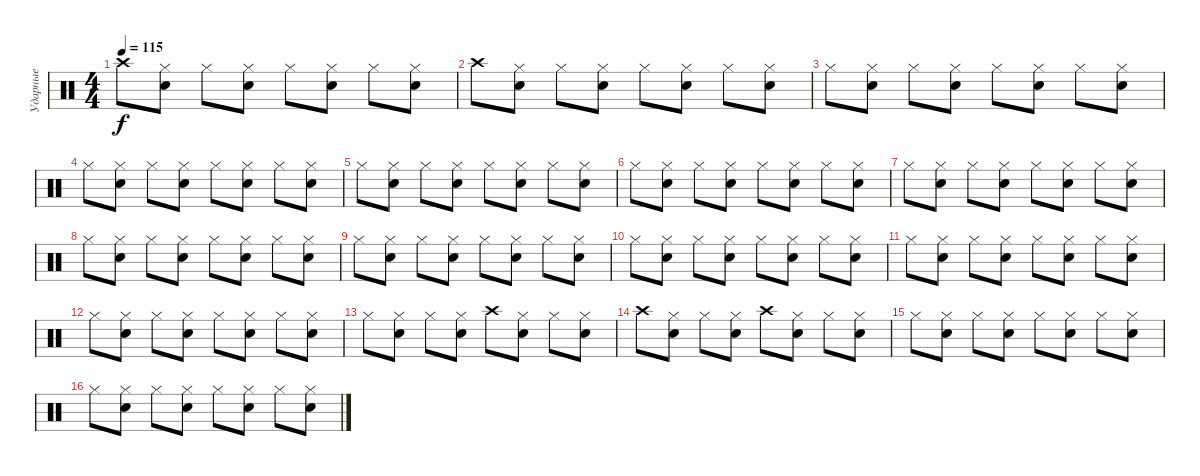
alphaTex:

\track ("Ударные" "Ударные") {instrument percussion}
\staff {score}
\articulation defaults
\ts (4 4)
\tempo 115
\clef neutral
\ks c "Crash high (hit)".8{dy f}
("Hi-Hat (closed)" "Snare (hit) 2").8 "Hi-Hat (closed)".8 ("Hi-Hat (closed)" "Snare (hit) 2").8 "Hi-Hat (closed)".8 ("Hi-Hat (closed)" "Snare (hit) 2").8 "Hi-Hat (closed)".8 ("Hi-Hat (closed)" "Snare (hit) 2").8 |
"Crash high (hit)".8 ("Hi-Hat (closed)" "Snare (hit) 2").8 "Hi-Hat (closed)".8 ("Hi-Hat (closed)" "Snare (hit) 2").8 "Hi-Hat (closed)".8 ("Hi-Hat (closed)" "Snare (hit) 2").8 "Hi-Hat (closed)".8 ("Hi-Hat (closed)" "Snare (hit) 2").8 |
"Hi-Hat (closed)".8 ("Hi-Hat (closed)" "Snare (hit) 2").8 "Hi-Hat (closed)".8 ("Hi-Hat (closed)" "Snare (hit) 2").8 "Hi-Hat (closed)".8 ("Hi-Hat (closed)" "Snare (hit) 2").8 "Hi-Hat (closed)".8 ("Hi-Hat (closed)" "Snare (hit) 2").8 |
"Hi-Hat (closed)".8 ("Hi-Hat (closed)" "Snare (hit) 2").8 "Hi-Hat (closed)".8 ("Hi-Hat (closed)" "Snare (hit) 2").8 "Hi-Hat (closed)".8 ("Hi-Hat (closed)" "Snare (hit) 2").8 "Hi-Hat (closed)".8 ("Hi-Hat (closed)" "Snare (hit) 2").8 |
"Hi-Hat (closed)".8 ("Hi-Hat (closed)" "Snare (hit) 2").8 "Hi-Hat (closed)".8 ("Hi-Hat (closed)" "Snare (hit) 2").8 "Hi-Hat (closed)".8 ("Hi-Hat (closed)" "Snare (hit) 2").8 "Hi-Hat (closed)".8 ("Hi-Hat (closed)" "Snare (hit) 2").8 |
"Hi-Hat (closed)".8 ("Hi-Hat (closed)" "Snare (hit) 2").8 "Hi-Hat (closed)".8 ("Hi-Hat (closed)" "Snare (hit) 2").8 "Hi-Hat (closed)".8 ("Hi-Hat (closed)" "Snare (hit) 2").8 "Hi-Hat (closed)".8 ("Hi-Hat (closed)" "Snare (hit) 2").8 |
"Hi-Hat (closed)".8 ("Hi-Hat (closed)" "Snare (hit) 2").8 "Hi-Hat (closed)".8 ("Hi-Hat (closed)" "Snare (hit) 2").8 "Hi-Hat (closed)".8 ("Hi-Hat (closed)" "Snare (hit) 2").8 "Hi-Hat (closed)".8 ("Hi-Hat (closed)" "Snare (hit) 2").8 |
"Hi-Hat (closed)".8 ("Hi-Hat (closed)" "Snare (hit) 2").8 "Hi-Hat (closed)".8 ("Hi-Hat (closed)" "Snare (hit) 2").8 "Hi-Hat (closed)".8 ("Hi-Hat (closed)" "Snare (hit) 2").8 "Hi-Hat (closed)".8 ("Hi-Hat (closed)" "Snare (hit) 2").8 |
"Hi-Hat (closed)".8 ("Hi-Hat (closed)" "Snare (hit) 2").8 "Hi-Hat (closed)".8 ("Hi-Hat (closed)" "Snare (hit) 2").8 "Hi-Hat (closed)".8 ("Hi-Hat (closed)" "Snare (hit) 2").8 "Hi-Hat (closed)".8 ("Hi-Hat (closed)" "Snare (hit) 2").8 |
"Hi-Hat (closed)".8 ("Hi-Hat (closed)" "Snare (hit) 2").8 "Hi-Hat (closed)".8 ("Hi-Hat (closed)" "Snare (hit) 2").8 "Hi-Hat (closed)".8 ("Hi-Hat (closed)" "Snare (hit) 2").8 "Hi-Hat (closed)".8 ("Hi-Hat (closed)" "Snare (hit) 2").8 |
"Hi-Hat (closed)".8 ("Hi-Hat (closed)" "Snare (hit) 2").8 "Hi-Hat (closed)".8 ("Hi-Hat (closed)" "Snare (hit) 2").8 "Hi-Hat (closed)".8 ("Hi-Hat (closed)" "Snare (hit) 2").8 "Hi-Hat (closed)".8 ("Hi-Hat (closed)" "Snare (hit) 2").8 |
"Hi-Hat (closed)".8 ("Hi-Hat (closed)" "Snare (hit) 2").8 "Hi-Hat (closed)".8 ("Hi-Hat (closed)" "Snare (hit) 2").8 "Hi-Hat (closed)".8 ("Hi-Hat (closed)" "Snare (hit) 2").8 "Hi-Hat (closed)".8 ("Hi-Hat (closed)" "Snare (hit) 2").8 |
"Hi-Hat (closed)".8 ("Hi-Hat (closed)" "Snare (hit) 2").8 "Hi-Hat (closed)".8 ("Hi-Hat (closed)" "Snare (hit) 2").8 "Crash high (hit)".8 ("Hi-Hat (closed)" "Snare (hit) 2").8 "Hi-Hat (closed)".8 ("Hi-Hat (closed)" "Snare (hit) 2").8 |
"Crash high (hit)".8 ("Hi-Hat (closed)" "Snare (hit) 2").8 "Hi-Hat (closed)".8 ("Hi-Hat (closed)" "Snare (hit) 2").8 "Crash high (hit)".8 ("Hi-Hat (closed)" "Snare (hit) 2").8 "Hi-Hat (closed)".8 ("Hi-Hat (closed)" "Snare (hit) 2").8 |
"Hi-Hat (closed)".8 ("Hi-Hat (closed)" "Snare (hit) 2").8 "Hi-Hat (closed)".8 ("Hi-Hat (closed)" "Snare (hit) 2").8 "Hi-Hat (closed)".8 ("Hi-Hat (closed)" "Snare (hit) 2").8 "Hi-Hat (closed)".8 ("Hi-Hat (closed)" "Snare (hit) 2").8 |
"Hi-Hat (closed)".8 ("Hi-Hat (closed)" "Snare (hit) 2").8 "Hi-Hat (closed)".8 ("Hi-Hat (closed)" "Snare (hit) 2").8 "Hi-Hat (closed)".8 ("Hi-Hat (closed)" "Snare (hit) 2").8 "Hi-Hat (closed)".8 ("Hi-Hat (closed)" "Snare (hit) 2").8
